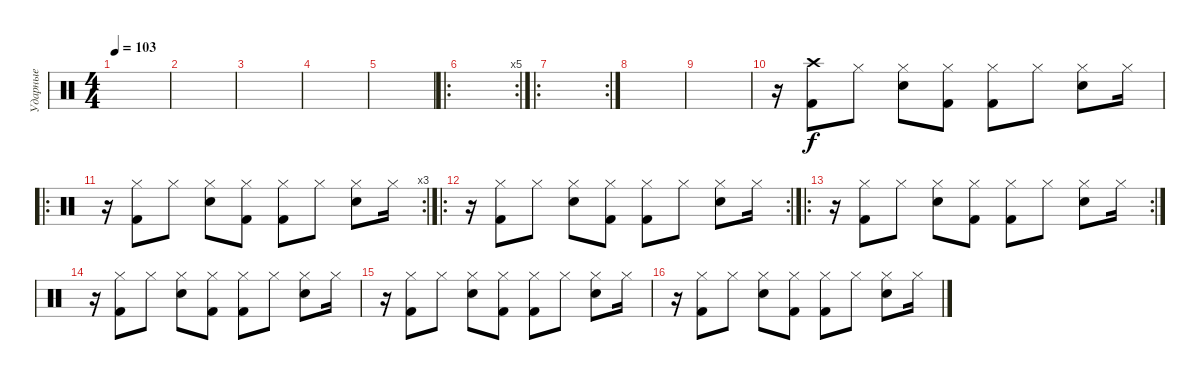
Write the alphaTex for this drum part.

\track ("Ударные" "Ударные") {instrument percussion}
\staff {score}
\articulation defaults
\ts (4 4)
\tempo 103
\clef neutral
\ks c
|
|
|
|
|
\ro
\rc 5
|
\ro
\rc 2
|
|
|
r.16 ("Kick (hit) 2" "Crash high (hit)").8 "Hi-Hat (closed)".8 ("Hi-Hat (closed)" "Electric Snare (hit)").8 ("Hi-Hat (closed)" "Kick (hit) 2").8 ("Hi-Hat (closed)" "Kick (hit) 2").8 "Hi-Hat (closed)".8 ("Hi-Hat (closed)" "Electric Snare (hit)").8 "Hi-Hat (closed)".16 |
\ro
\rc 3
r.16 ("Hi-Hat (closed)" "Kick (hit) 2").8 "Hi-Hat (closed)".8 ("Hi-Hat (closed)" "Electric Snare (hit)").8 ("Hi-Hat (closed)" "Kick (hit) 2").8 ("Hi-Hat (closed)" "Kick (hit) 2").8 "Hi-Hat (closed)".8 ("Hi-Hat (closed)" "Electric Snare (hit)").8 "Hi-Hat (closed)".16 |
\ro
\rc 2
r.16 ("Hi-Hat (closed)" "Kick (hit) 2").8 "Hi-Hat (closed)".8 ("Hi-Hat (closed)" "Electric Snare (hit)").8 ("Hi-Hat (closed)" "Kick (hit) 2").8 ("Hi-Hat (closed)" "Kick (hit) 2").8 "Hi-Hat (closed)".8 ("Hi-Hat (closed)" "Electric Snare (hit)").8 "Hi-Hat (closed)".16 |
\ro
\rc 2
r.16 ("Hi-Hat (closed)" "Kick (hit) 2").8 "Hi-Hat (closed)".8 ("Hi-Hat (closed)" "Electric Snare (hit)").8 ("Hi-Hat (closed)" "Kick (hit) 2").8 ("Hi-Hat (closed)" "Kick (hit) 2").8 "Hi-Hat (closed)".8 ("Hi-Hat (closed)" "Electric Snare (hit)").8 "Hi-Hat (closed)".16 |
r.16 ("Hi-Hat (closed)" "Kick (hit) 2").8 "Hi-Hat (closed)".8 ("Hi-Hat (closed)" "Electric Snare (hit)").8 ("Hi-Hat (closed)" "Kick (hit) 2").8 ("Hi-Hat (closed)" "Kick (hit) 2").8 "Hi-Hat (closed)".8 ("Hi-Hat (closed)" "Electric Snare (hit)").8 "Hi-Hat (closed)".16 |
r.16 ("Hi-Hat (closed)" "Kick (hit) 2").8 "Hi-Hat (closed)".8 ("Hi-Hat (closed)" "Electric Snare (hit)").8 ("Hi-Hat (closed)" "Kick (hit) 2").8 ("Hi-Hat (closed)" "Kick (hit) 2").8 "Hi-Hat (closed)".8 ("Hi-Hat (closed)" "Electric Snare (hit)").8 "Hi-Hat (closed)".16 |
r.16 ("Hi-Hat (closed)" "Kick (hit) 2").8 "Hi-Hat (closed)".8 ("Hi-Hat (closed)" "Electric Snare (hit)").8 ("Hi-Hat (closed)" "Kick (hit) 2").8 ("Hi-Hat (closed)" "Kick (hit) 2").8 "Hi-Hat (closed)".8 ("Hi-Hat (closed)" "Electric Snare (hit)").8 "Hi-Hat (closed)".16
